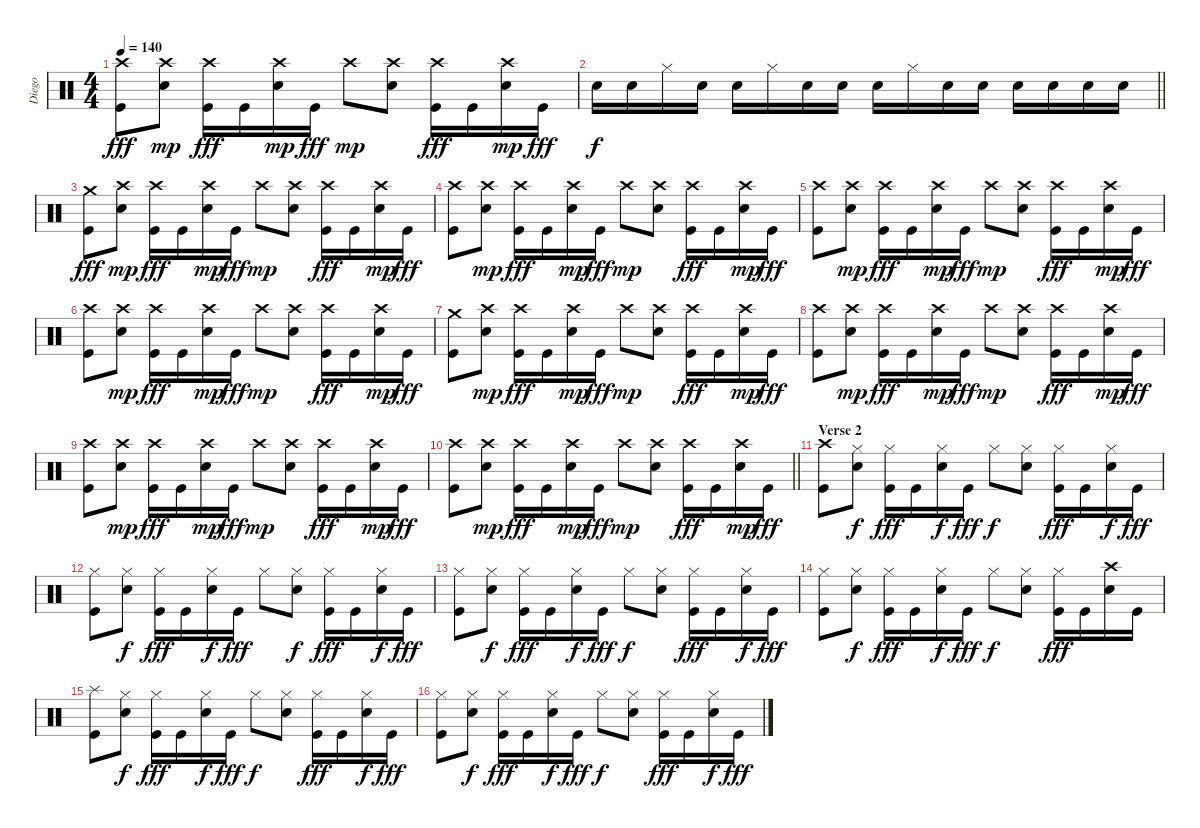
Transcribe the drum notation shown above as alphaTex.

\track ("Diego" "Diego") {instrument percussion}
\staff {score}
\articulation defaults
\ts (4 4)
\tempo 140
\clef neutral
\ks c
("Crash high (hit)" "Kick (hit)").8{dy fff} ("Crash high (hit)" "Snare (hit) 2").8{dy mp} ("Crash high (hit)" "Kick (hit)").16{dy fff} "Kick (hit)".16 ("Crash high (hit)" "Snare (hit) 2").16{dy mp} "Kick (hit)".16{dy fff} "Crash high (hit)".8{dy mp} ("Crash high (hit)" "Snare (hit) 2").8 ("Crash high (hit)" "Kick (hit)").16{dy fff} "Kick (hit)".16 ("Crash high (hit)" "Snare (hit) 2").16{dy mp} "Kick (hit)".16{dy fff} |
\barLineRight lightlight "Snare (hit) 2".16{dy f} "Snare (hit) 2".16 "Hi-Hat (closed)".16 "Snare (hit) 2".16 "Snare (hit) 2".16 "Hi-Hat (closed)".16 "Snare (hit) 2".16 "Snare (hit) 2".16 "Snare (hit) 2".16 "Hi-Hat (closed)".16 "Snare (hit) 2".16 "Snare (hit) 2".16 "Snare (hit) 2".16 "Snare (hit) 2".16 "Snare (hit) 2".16 "Snare (hit) 2".16
|
("Crash medium (hit)" "Kick (hit)").8{dy fff} ("Crash high (hit)" "Snare (hit) 2").8{dy mp} ("Crash high (hit)" "Kick (hit)").16{dy fff} "Kick (hit)".16 ("Crash high (hit)" "Snare (hit) 2").16{dy mp} "Kick (hit)".16{dy fff} "Crash high (hit)".8{dy mp} ("Crash high (hit)" "Snare (hit) 2").8 ("Crash high (hit)" "Kick (hit)").16{dy fff} "Kick (hit)".16 ("Crash high (hit)" "Snare (hit) 2").16{dy mp} "Kick (hit)".16{dy fff} |
("Crash high (hit)" "Kick (hit)").8 ("Crash high (hit)" "Snare (hit) 2").8{dy mp} ("Crash high (hit)" "Kick (hit)").16{dy fff} "Kick (hit)".16 ("Crash high (hit)" "Snare (hit) 2").16{dy mp} "Kick (hit)".16{dy fff} "Crash high (hit)".8{dy mp} ("Crash high (hit)" "Snare (hit) 2").8 ("Crash high (hit)" "Kick (hit)").16{dy fff} "Kick (hit)".16 ("Crash high (hit)" "Snare (hit) 2").16{dy mp} "Kick (hit)".16{dy fff} |
("Crash high (hit)" "Kick (hit)").8 ("Crash high (hit)" "Snare (hit) 2").8{dy mp} ("Crash high (hit)" "Kick (hit)").16{dy fff} "Kick (hit)".16 ("Crash high (hit)" "Snare (hit) 2").16{dy mp} "Kick (hit)".16{dy fff} "Crash high (hit)".8{dy mp} ("Crash high (hit)" "Snare (hit) 2").8 ("Crash high (hit)" "Kick (hit)").16{dy fff} "Kick (hit)".16 ("Crash high (hit)" "Snare (hit) 2").16{dy mp} "Kick (hit)".16{dy fff} |
("Crash high (hit)" "Kick (hit)").8 ("Crash high (hit)" "Snare (hit) 2").8{dy mp} ("Crash high (hit)" "Kick (hit)").16{dy fff} "Kick (hit)".16 ("Crash high (hit)" "Snare (hit) 2").16{dy mp} "Kick (hit)".16{dy fff} "Crash high (hit)".8{dy mp} ("Crash high (hit)" "Snare (hit) 2").8 ("Crash high (hit)" "Kick (hit)").16{dy fff} "Kick (hit)".16 ("Crash high (hit)" "Snare (hit) 2").16{dy mp} "Kick (hit)".16{dy fff} |
("Crash medium (hit)" "Kick (hit)").8 ("Crash high (hit)" "Snare (hit) 2").8{dy mp} ("Crash high (hit)" "Kick (hit)").16{dy fff} "Kick (hit)".16 ("Crash high (hit)" "Snare (hit) 2").16{dy mp} "Kick (hit)".16{dy fff} "Crash high (hit)".8{dy mp} ("Crash high (hit)" "Snare (hit) 2").8 ("Crash high (hit)" "Kick (hit)").16{dy fff} "Kick (hit)".16 ("Crash high (hit)" "Snare (hit) 2").16{dy mp} "Kick (hit)".16{dy fff} |
("Crash high (hit)" "Kick (hit)").8 ("Crash high (hit)" "Snare (hit) 2").8{dy mp} ("Crash high (hit)" "Kick (hit)").16{dy fff} "Kick (hit)".16 ("Crash high (hit)" "Snare (hit) 2").16{dy mp} "Kick (hit)".16{dy fff} "Crash high (hit)".8{dy mp} ("Crash high (hit)" "Snare (hit) 2").8 ("Crash high (hit)" "Kick (hit)").16{dy fff} "Kick (hit)".16 ("Crash high (hit)" "Snare (hit) 2").16{dy mp} "Kick (hit)".16{dy fff} |
("Crash high (hit)" "Kick (hit)").8 ("Crash high (hit)" "Snare (hit) 2").8{dy mp} ("Crash high (hit)" "Kick (hit)").16{dy fff} "Kick (hit)".16 ("Crash high (hit)" "Snare (hit) 2").16{dy mp} "Kick (hit)".16{dy fff} "Crash high (hit)".8{dy mp} ("Crash high (hit)" "Snare (hit) 2").8 ("Crash high (hit)" "Kick (hit)").16{dy fff} "Kick (hit)".16 ("Crash high (hit)" "Snare (hit) 2").16{dy mp} "Kick (hit)".16{dy fff} |
\barLineRight lightlight
("Crash high (hit)" "Kick (hit)").8 ("Crash high (hit)" "Snare (hit) 2").8{dy mp} ("Crash high (hit)" "Kick (hit)").16{dy fff} "Kick (hit)".16 ("Crash high (hit)" "Snare (hit) 2").16{dy mp} "Kick (hit)".16{dy fff} "Crash high (hit)".8{dy mp} ("Crash high (hit)" "Snare (hit) 2").8 ("Crash high (hit)" "Kick (hit)").16{dy fff} "Kick (hit)".16 ("Crash high (hit)" "Snare (hit) 2").16{dy mp} "Kick (hit)".16{dy fff} |
\section ("" "Verse 2")
("Crash high (hit)" "Kick (hit)").8 ("Hi-Hat (closed)" "Snare (hit) 2").8{dy f} ("Hi-Hat (closed)" "Kick (hit)").16{dy fff} "Kick (hit)".16 ("Hi-Hat (closed)" "Snare (hit) 2").16{dy f} "Kick (hit)".16{dy fff} "Hi-Hat (closed)".8{dy f} ("Hi-Hat (closed)" "Snare (hit) 2").8 ("Hi-Hat (closed)" "Kick (hit)").16{dy fff} "Kick (hit)".16 ("Hi-Hat (closed)" "Snare (hit) 2").16{dy f} "Kick (hit)".16{dy fff} |
("Hi-Hat (closed)" "Kick (hit)").8 ("Hi-Hat (closed)" "Snare (hit) 2").8{dy f} ("Hi-Hat (closed)" "Kick (hit)").16{dy fff} "Kick (hit)".16 ("Hi-Hat (closed)" "Snare (hit) 2").16{dy f} "Kick (hit)".16{dy fff} "Hi-Hat (closed)".8 ("Hi-Hat (closed)" "Snare (hit) 2").8{dy f} ("Hi-Hat (closed)" "Kick (hit)").16{dy fff} "Kick (hit)".16 ("Hi-Hat (closed)" "Snare (hit) 2").16{dy f} "Kick (hit)".16{dy fff} |
("Hi-Hat (closed)" "Kick (hit)").8 ("Hi-Hat (closed)" "Snare (hit) 2").8{dy f} ("Hi-Hat (closed)" "Kick (hit)").16{dy fff} "Kick (hit)".16 ("Hi-Hat (closed)" "Snare (hit) 2").16{dy f} "Kick (hit)".16{dy fff} "Hi-Hat (closed)".8{dy f} ("Hi-Hat (closed)" "Snare (hit) 2").8 ("Hi-Hat (closed)" "Kick (hit)").16{dy fff} "Kick (hit)".16 ("Hi-Hat (closed)" "Snare (hit) 2").16{dy f} "Kick (hit)".16{dy fff} |
("Hi-Hat (closed)" "Kick (hit)").8 ("Hi-Hat (closed)" "Snare (hit) 2").8{dy f} ("Hi-Hat (closed)" "Kick (hit)").16{dy fff} "Kick (hit)".16 ("Hi-Hat (closed)" "Snare (hit) 2").16{dy f} "Kick (hit)".16{dy fff} "Hi-Hat (closed)".8{dy f} ("Hi-Hat (closed)" "Snare (hit) 2").8 ("Hi-Hat (closed)" "Kick (hit)").16{dy fff} "Kick (hit)".16 ("Crash high (hit)" "Snare (hit) 2").16 "Kick (hit)".16 |
("Splash (hit)" "Kick (hit)").8 ("Hi-Hat (closed)" "Snare (hit) 2").8{dy f} ("Hi-Hat (closed)" "Kick (hit)").16{dy fff} "Kick (hit)".16 ("Hi-Hat (closed)" "Snare (hit) 2").16{dy f} "Kick (hit)".16{dy fff} "Hi-Hat (closed)".8{dy f} ("Hi-Hat (closed)" "Snare (hit) 2").8 ("Hi-Hat (closed)" "Kick (hit)").16{dy fff} "Kick (hit)".16 ("Hi-Hat (closed)" "Snare (hit) 2").16{dy f} "Kick (hit)".16{dy fff} |
("Hi-Hat (closed)" "Kick (hit)").8 ("Hi-Hat (closed)" "Snare (hit) 2").8{dy f} ("Hi-Hat (closed)" "Kick (hit)").16{dy fff} "Kick (hit)".16 ("Hi-Hat (closed)" "Snare (hit) 2").16{dy f} "Kick (hit)".16{dy fff} "Hi-Hat (closed)".8{dy f} ("Hi-Hat (closed)" "Snare (hit) 2").8 ("Hi-Hat (closed)" "Kick (hit)").16{dy fff} "Kick (hit)".16 ("Hi-Hat (closed)" "Snare (hit) 2").16{dy f} "Kick (hit)".16{dy fff}
